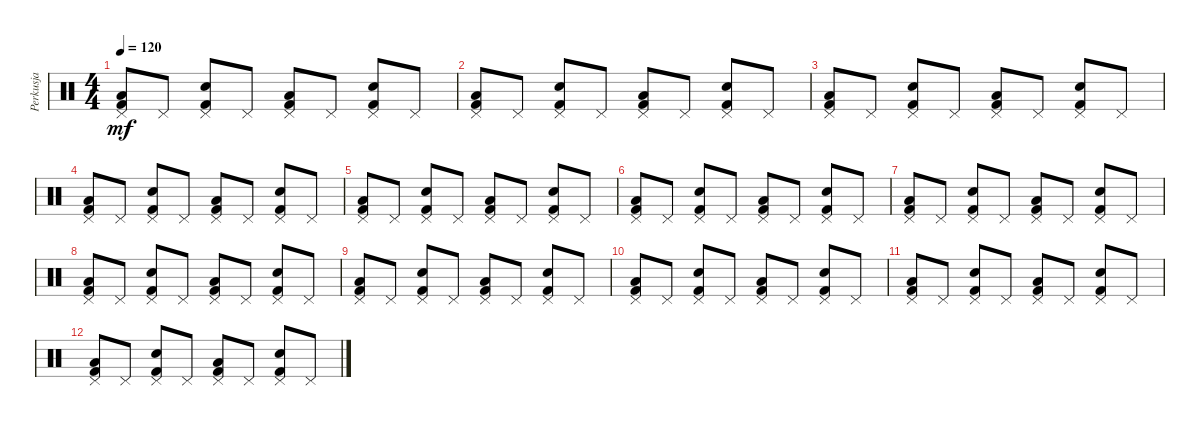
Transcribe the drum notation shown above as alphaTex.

\track ("Perkusja" "Perkusja") {instrument percussion}
\staff {score}
\articulation defaults
\ts (4 4)
\tempo 120
\clef neutral
\ks c
("Pedal Hi-Hat (hit)" "Low Floor Tom (hit)" "Kick (hit) 2").8{dy mf} "Pedal Hi-Hat (hit)".8 ("Pedal Hi-Hat (hit)" "Electric Snare (hit)" "Kick (hit) 2").8 "Pedal Hi-Hat (hit)".8 ("Pedal Hi-Hat (hit)" "Low Floor Tom (hit)" "Kick (hit) 2").8 "Pedal Hi-Hat (hit)".8 ("Pedal Hi-Hat (hit)" "Electric Snare (hit)" "Kick (hit) 2").8 "Pedal Hi-Hat (hit)".8 |
("Pedal Hi-Hat (hit)" "Low Floor Tom (hit)" "Kick (hit) 2").8 "Pedal Hi-Hat (hit)".8 ("Pedal Hi-Hat (hit)" "Electric Snare (hit)" "Kick (hit) 2").8 "Pedal Hi-Hat (hit)".8 ("Pedal Hi-Hat (hit)" "Low Floor Tom (hit)" "Kick (hit) 2").8 "Pedal Hi-Hat (hit)".8 ("Pedal Hi-Hat (hit)" "Electric Snare (hit)" "Kick (hit) 2").8 "Pedal Hi-Hat (hit)".8 |
("Pedal Hi-Hat (hit)" "Low Floor Tom (hit)" "Kick (hit) 2").8 "Pedal Hi-Hat (hit)".8 ("Pedal Hi-Hat (hit)" "Electric Snare (hit)" "Kick (hit) 2").8 "Pedal Hi-Hat (hit)".8 ("Pedal Hi-Hat (hit)" "Low Floor Tom (hit)" "Kick (hit) 2").8 "Pedal Hi-Hat (hit)".8 ("Pedal Hi-Hat (hit)" "Electric Snare (hit)" "Kick (hit) 2").8 "Pedal Hi-Hat (hit)".8 |
("Pedal Hi-Hat (hit)" "Low Floor Tom (hit)" "Kick (hit) 2").8 "Pedal Hi-Hat (hit)".8 ("Pedal Hi-Hat (hit)" "Electric Snare (hit)" "Kick (hit) 2").8 "Pedal Hi-Hat (hit)".8 ("Pedal Hi-Hat (hit)" "Low Floor Tom (hit)" "Kick (hit) 2").8 "Pedal Hi-Hat (hit)".8 ("Pedal Hi-Hat (hit)" "Electric Snare (hit)" "Kick (hit) 2").8 "Pedal Hi-Hat (hit)".8 |
("Pedal Hi-Hat (hit)" "Low Floor Tom (hit)" "Kick (hit) 2").8 "Pedal Hi-Hat (hit)".8 ("Pedal Hi-Hat (hit)" "Electric Snare (hit)" "Kick (hit) 2").8 "Pedal Hi-Hat (hit)".8 ("Pedal Hi-Hat (hit)" "Low Floor Tom (hit)" "Kick (hit) 2").8 "Pedal Hi-Hat (hit)".8 ("Pedal Hi-Hat (hit)" "Electric Snare (hit)" "Kick (hit) 2").8 "Pedal Hi-Hat (hit)".8 |
("Pedal Hi-Hat (hit)" "Low Floor Tom (hit)" "Kick (hit) 2").8 "Pedal Hi-Hat (hit)".8 ("Pedal Hi-Hat (hit)" "Electric Snare (hit)" "Kick (hit) 2").8 "Pedal Hi-Hat (hit)".8 ("Pedal Hi-Hat (hit)" "Low Floor Tom (hit)" "Kick (hit) 2").8 "Pedal Hi-Hat (hit)".8 ("Pedal Hi-Hat (hit)" "Electric Snare (hit)" "Kick (hit) 2").8 "Pedal Hi-Hat (hit)".8 |
("Pedal Hi-Hat (hit)" "Low Floor Tom (hit)" "Kick (hit) 2").8 "Pedal Hi-Hat (hit)".8 ("Pedal Hi-Hat (hit)" "Electric Snare (hit)" "Kick (hit) 2").8 "Pedal Hi-Hat (hit)".8 ("Pedal Hi-Hat (hit)" "Low Floor Tom (hit)" "Kick (hit) 2").8 "Pedal Hi-Hat (hit)".8 ("Pedal Hi-Hat (hit)" "Electric Snare (hit)" "Kick (hit) 2").8 "Pedal Hi-Hat (hit)".8 |
("Pedal Hi-Hat (hit)" "Low Floor Tom (hit)" "Kick (hit) 2").8 "Pedal Hi-Hat (hit)".8 ("Pedal Hi-Hat (hit)" "Electric Snare (hit)" "Kick (hit) 2").8 "Pedal Hi-Hat (hit)".8 ("Pedal Hi-Hat (hit)" "Low Floor Tom (hit)" "Kick (hit) 2").8 "Pedal Hi-Hat (hit)".8 ("Pedal Hi-Hat (hit)" "Electric Snare (hit)" "Kick (hit) 2").8 "Pedal Hi-Hat (hit)".8 |
("Pedal Hi-Hat (hit)" "Low Floor Tom (hit)" "Kick (hit) 2").8 "Pedal Hi-Hat (hit)".8 ("Pedal Hi-Hat (hit)" "Electric Snare (hit)" "Kick (hit) 2").8 "Pedal Hi-Hat (hit)".8 ("Pedal Hi-Hat (hit)" "Low Floor Tom (hit)" "Kick (hit) 2").8 "Pedal Hi-Hat (hit)".8 ("Pedal Hi-Hat (hit)" "Electric Snare (hit)" "Kick (hit) 2").8 "Pedal Hi-Hat (hit)".8 |
("Pedal Hi-Hat (hit)" "Low Floor Tom (hit)" "Kick (hit) 2").8 "Pedal Hi-Hat (hit)".8 ("Pedal Hi-Hat (hit)" "Electric Snare (hit)" "Kick (hit) 2").8 "Pedal Hi-Hat (hit)".8 ("Pedal Hi-Hat (hit)" "Low Floor Tom (hit)" "Kick (hit) 2").8 "Pedal Hi-Hat (hit)".8 ("Pedal Hi-Hat (hit)" "Electric Snare (hit)" "Kick (hit) 2").8 "Pedal Hi-Hat (hit)".8 |
("Pedal Hi-Hat (hit)" "Low Floor Tom (hit)" "Kick (hit) 2").8 "Pedal Hi-Hat (hit)".8 ("Pedal Hi-Hat (hit)" "Electric Snare (hit)" "Kick (hit) 2").8 "Pedal Hi-Hat (hit)".8 ("Pedal Hi-Hat (hit)" "Low Floor Tom (hit)" "Kick (hit) 2").8 "Pedal Hi-Hat (hit)".8 ("Pedal Hi-Hat (hit)" "Electric Snare (hit)" "Kick (hit) 2").8 "Pedal Hi-Hat (hit)".8 |
("Pedal Hi-Hat (hit)" "Low Floor Tom (hit)" "Kick (hit) 2").8 "Pedal Hi-Hat (hit)".8 ("Pedal Hi-Hat (hit)" "Electric Snare (hit)" "Kick (hit) 2").8 "Pedal Hi-Hat (hit)".8 ("Pedal Hi-Hat (hit)" "Low Floor Tom (hit)" "Kick (hit) 2").8 "Pedal Hi-Hat (hit)".8 ("Pedal Hi-Hat (hit)" "Electric Snare (hit)" "Kick (hit) 2").8 "Pedal Hi-Hat (hit)".8
